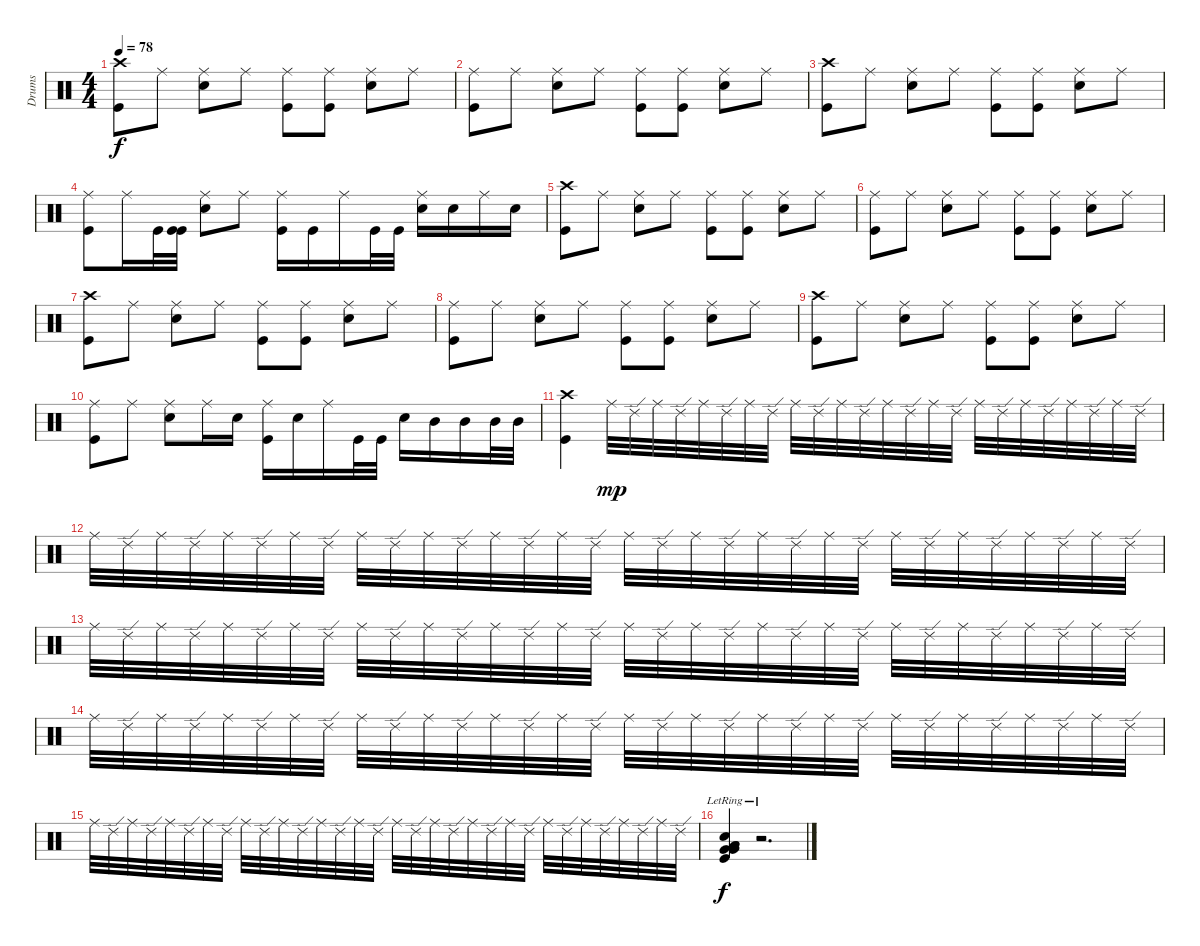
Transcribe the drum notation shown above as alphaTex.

\track ("Drums" "Drums") {instrument percussion}
\staff {score}
\articulation defaults
\ts (4 4)
\tempo 78
\clef neutral
\ks c
("Kick (hit)" "Crash high (hit)").8{dy f} "Ride (middle)".8 ("Snare (hit) 2" "Ride (middle)").8 "Ride (middle)".8 ("Kick (hit)" "Ride (middle)").8 ("Kick (hit)" "Ride (middle)").8 ("Snare (hit) 2" "Ride (middle)").8 "Ride (middle)".8 |
("Kick (hit)" "Ride (middle)").8 "Ride (middle)".8 ("Snare (hit) 2" "Ride (middle)").8 "Ride (middle)".8 ("Kick (hit)" "Ride (middle)").8 ("Kick (hit)" "Ride (middle)").8 ("Snare (hit) 2" "Ride (middle)").8 "Ride (middle)".8 |
("Kick (hit)" "Crash high (hit)").8 "Ride (middle)".8 ("Snare (hit) 2" "Ride (middle)").8 "Ride (middle)".8 ("Kick (hit)" "Ride (middle)").8 ("Kick (hit)" "Ride (middle)").8 ("Snare (hit) 2" "Ride (middle)").8 "Ride (middle)".8 |
("Kick (hit)" "Ride (middle)").8 "Ride (middle)".16 "Kick (hit)".32 ("Kick (hit)" "Kick (hit)").32 ("Snare (hit) 2" "Ride (middle)").8 "Ride (middle)".8 ("Kick (hit)" "Ride (middle)").16 "Kick (hit)".16 "Ride (middle)".16 "Kick (hit)".32 "Kick (hit)".32 ("Snare (hit) 2" "Ride (middle)").16 "Snare (hit) 2".16 "Ride (middle)".16 "Snare (hit) 2".16 |
("Kick (hit)" "Crash high (hit)").8 "Ride (middle)".8 ("Snare (hit) 2" "Ride (middle)").8 "Ride (middle)".8 ("Kick (hit)" "Ride (middle)").8 ("Kick (hit)" "Ride (middle)").8 ("Snare (hit) 2" "Ride (middle)").8 "Ride (middle)".8 |
("Kick (hit)" "Ride (middle)").8 "Ride (middle)".8 ("Snare (hit) 2" "Ride (middle)").8 "Ride (middle)".8 ("Kick (hit)" "Ride (middle)").8 ("Kick (hit)" "Ride (middle)").8 ("Snare (hit) 2" "Ride (middle)").8 "Ride (middle)".8 |
("Kick (hit)" "Crash high (hit)").8 "Ride (middle)".8 ("Snare (hit) 2" "Ride (middle)").8 "Ride (middle)".8 ("Kick (hit)" "Ride (middle)").8 ("Kick (hit)" "Ride (middle)").8 ("Snare (hit) 2" "Ride (middle)").8 "Ride (middle)".8 |
("Kick (hit)" "Ride (middle)").8 "Ride (middle)".8 ("Snare (hit) 2" "Ride (middle)").8 "Ride (middle)".8 ("Kick (hit)" "Ride (middle)").8 ("Kick (hit)" "Ride (middle)").8 ("Snare (hit) 2" "Ride (middle)").8 "Ride (middle)".8 |
("Kick (hit)" "Crash high (hit)").8 "Ride (middle)".8 ("Snare (hit) 2" "Ride (middle)").8 "Ride (middle)".8 ("Kick (hit)" "Ride (middle)").8 ("Kick (hit)" "Ride (middle)").8 ("Snare (hit) 2" "Ride (middle)").8 "Ride (middle)".8 |
("Kick (hit)" "Ride (middle)").8 "Ride (middle)".8 ("Snare (hit) 2" "Ride (middle)").8 "Ride (middle)".16 "Snare (hit) 2".16 ("Kick (hit)" "Ride (middle)").16 "Snare (hit) 2".16 "Ride (middle)".16 "Kick (hit)".32 "Kick (hit)".32 "Snare (hit) 2".16 "Mid Tom (hit)".16 "Mid Tom (hit)".16 "Mid Tom (hit)".32 "Mid Tom (hit)".32 |
("Kick (hit)" "Crash high (hit)").4 "Ride (middle)".32{dy mp} "Ride (edge) 2".32 "Ride (middle)".32 "Ride (edge) 2".32 "Ride (middle)".32 "Ride (edge) 2".32 "Ride (middle)".32 "Ride (edge) 2".32 "Ride (middle)".32 "Ride (edge) 2".32 "Ride (middle)".32 "Ride (edge) 2".32 "Ride (middle)".32 "Ride (edge) 2".32 "Ride (middle)".32 "Ride (edge) 2".32 "Ride (middle)".32 "Ride (edge) 2".32 "Ride (middle)".32 "Ride (edge) 2".32 "Ride (middle)".32 "Ride (edge) 2".32 "Ride (middle)".32 "Ride (edge) 2".32 |
"Ride (middle)".32 "Ride (edge) 2".32 "Ride (middle)".32 "Ride (edge) 2".32 "Ride (middle)".32 "Ride (edge) 2".32 "Ride (middle)".32 "Ride (edge) 2".32 "Ride (middle)".32 "Ride (edge) 2".32 "Ride (middle)".32 "Ride (edge) 2".32 "Ride (middle)".32 "Ride (edge) 2".32 "Ride (middle)".32 "Ride (edge) 2".32 "Ride (middle)".32 "Ride (edge) 2".32 "Ride (middle)".32 "Ride (edge) 2".32 "Ride (middle)".32 "Ride (edge) 2".32 "Ride (middle)".32 "Ride (edge) 2".32 "Ride (middle)".32 "Ride (edge) 2".32 "Ride (middle)".32 "Ride (edge) 2".32 "Ride (middle)".32 "Ride (edge) 2".32 "Ride (middle)".32 "Ride (edge) 2".32 |
"Ride (middle)".32 "Ride (edge) 2".32 "Ride (middle)".32 "Ride (edge) 2".32 "Ride (middle)".32 "Ride (edge) 2".32 "Ride (middle)".32 "Ride (edge) 2".32 "Ride (middle)".32 "Ride (edge) 2".32 "Ride (middle)".32 "Ride (edge) 2".32 "Ride (middle)".32 "Ride (edge) 2".32 "Ride (middle)".32 "Ride (edge) 2".32 "Ride (middle)".32 "Ride (edge) 2".32 "Ride (middle)".32 "Ride (edge) 2".32 "Ride (middle)".32 "Ride (edge) 2".32 "Ride (middle)".32 "Ride (edge) 2".32 "Ride (middle)".32 "Ride (edge) 2".32 "Ride (middle)".32 "Ride (edge) 2".32 "Ride (middle)".32 "Ride (edge) 2".32 "Ride (middle)".32 "Ride (edge) 2".32 |
"Ride (middle)".32 "Ride (edge) 2".32 "Ride (middle)".32 "Ride (edge) 2".32 "Ride (middle)".32 "Ride (edge) 2".32 "Ride (middle)".32 "Ride (edge) 2".32 "Ride (middle)".32 "Ride (edge) 2".32 "Ride (middle)".32 "Ride (edge) 2".32 "Ride (middle)".32 "Ride (edge) 2".32 "Ride (middle)".32 "Ride (edge) 2".32 "Ride (middle)".32 "Ride (edge) 2".32 "Ride (middle)".32 "Ride (edge) 2".32 "Ride (middle)".32 "Ride (edge) 2".32 "Ride (middle)".32 "Ride (edge) 2".32 "Ride (middle)".32 "Ride (edge) 2".32 "Ride (middle)".32 "Ride (edge) 2".32 "Ride (middle)".32 "Ride (edge) 2".32 "Ride (middle)".32 "Ride (edge) 2".32 |
"Ride (middle)".32 "Ride (edge) 2".32 "Ride (middle)".32 "Ride (edge) 2".32 "Ride (middle)".32 "Ride (edge) 2".32 "Ride (middle)".32 "Ride (edge) 2".32 "Ride (middle)".32 "Ride (edge) 2".32 "Ride (middle)".32 "Ride (edge) 2".32 "Ride (middle)".32 "Ride (edge) 2".32 "Ride (middle)".32 "Ride (edge) 2".32 "Ride (middle)".32 "Ride (edge) 2".32 "Ride (middle)".32 "Ride (edge) 2".32 "Ride (middle)".32 "Ride (edge) 2".32 "Ride (middle)".32 "Ride (edge) 2".32 "Ride (middle)".32 "Ride (edge) 2".32 "Ride (middle)".32 "Ride (edge) 2".32 "Ride (middle)".32 "Ride (edge) 2".32 "Ride (middle)".32 "Ride (edge) 2".32 |
("Very Low Tom (hit)"{lr} "Very Low Tom (hit)"{lr} "Low Floor Tom (hit)"{lr} "Low Floor Tom (hit)" "Snare (hit) 2"{lr} "Kick (hit)"{lr}).4{dy f} r.2{d}
